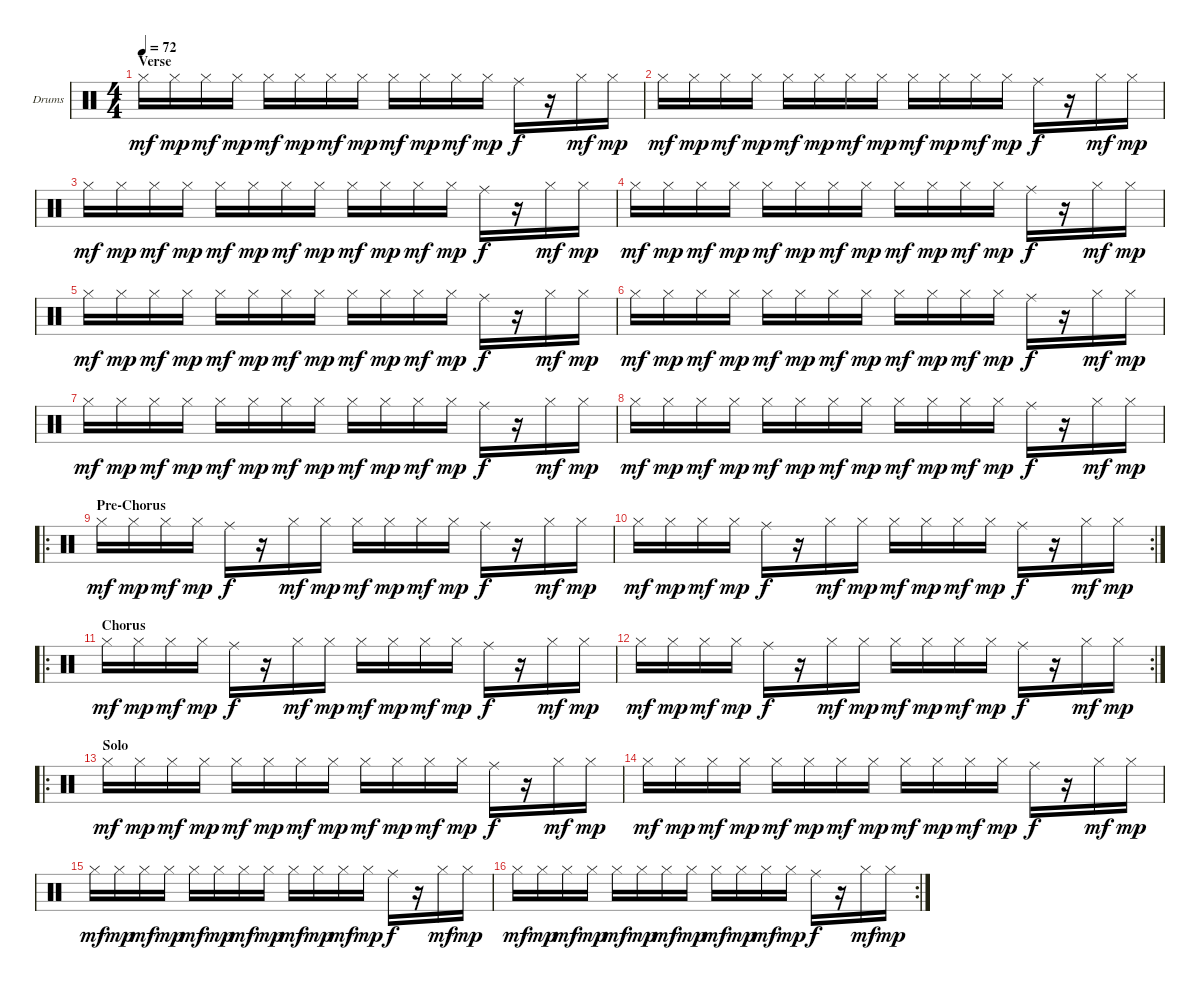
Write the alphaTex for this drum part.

\defaultSystemsLayout 4
\bracketExtendMode groupsimilarinstruments
\firstSystemTrackNameOrientation horizontal
\otherSystemsTrackNameOrientation horizontal
\track ("Drums" "Drums") {instrument percussion}
\staff {score}
\articulation defaults
\ts (4 4)
\section ("" "Verse")
\tempo 72
\clef neutral
\ks c "Hi-Hat (closed)".16{dy mf} "Hi-Hat (closed)".16{dy mp} "Hi-Hat (closed)".16{dy mf} "Hi-Hat (closed)".16{dy mp} "Hi-Hat (closed)".16{dy mf} "Hi-Hat (closed)".16{dy mp} "Hi-Hat (closed)".16{dy mf} "Hi-Hat (closed)".16{dy mp} "Hi-Hat (closed)".16{dy mf} "Hi-Hat (closed)".16{dy mp} "Hi-Hat (closed)".16{dy mf} "Hi-Hat (closed)".16{dy mp} "Ride (middle)".16{dy f}
r.16 "Hi-Hat (closed)".16{dy mf} "Hi-Hat (closed)".16{dy mp} |
"Hi-Hat (closed)".16{dy mf} "Hi-Hat (closed)".16{dy mp} "Hi-Hat (closed)".16{dy mf} "Hi-Hat (closed)".16{dy mp} "Hi-Hat (closed)".16{dy mf} "Hi-Hat (closed)".16{dy mp} "Hi-Hat (closed)".16{dy mf} "Hi-Hat (closed)".16{dy mp} "Hi-Hat (closed)".16{dy mf} "Hi-Hat (closed)".16{dy mp} "Hi-Hat (closed)".16{dy mf} "Hi-Hat (closed)".16{dy mp} "Ride (middle)".16{dy f} r.16 "Hi-Hat (closed)".16{dy mf} "Hi-Hat (closed)".16{dy mp} |
"Hi-Hat (closed)".16{dy mf} "Hi-Hat (closed)".16{dy mp} "Hi-Hat (closed)".16{dy mf} "Hi-Hat (closed)".16{dy mp} "Hi-Hat (closed)".16{dy mf} "Hi-Hat (closed)".16{dy mp} "Hi-Hat (closed)".16{dy mf} "Hi-Hat (closed)".16{dy mp} "Hi-Hat (closed)".16{dy mf} "Hi-Hat (closed)".16{dy mp} "Hi-Hat (closed)".16{dy mf} "Hi-Hat (closed)".16{dy mp} "Ride (middle)".16{dy f} r.16 "Hi-Hat (closed)".16{dy mf} "Hi-Hat (closed)".16{dy mp} |
"Hi-Hat (closed)".16{dy mf} "Hi-Hat (closed)".16{dy mp} "Hi-Hat (closed)".16{dy mf} "Hi-Hat (closed)".16{dy mp} "Hi-Hat (closed)".16{dy mf} "Hi-Hat (closed)".16{dy mp} "Hi-Hat (closed)".16{dy mf} "Hi-Hat (closed)".16{dy mp} "Hi-Hat (closed)".16{dy mf} "Hi-Hat (closed)".16{dy mp} "Hi-Hat (closed)".16{dy mf} "Hi-Hat (closed)".16{dy mp} "Ride (middle)".16{dy f} r.16 "Hi-Hat (closed)".16{dy mf} "Hi-Hat (closed)".16{dy mp} |
"Hi-Hat (closed)".16{dy mf} "Hi-Hat (closed)".16{dy mp} "Hi-Hat (closed)".16{dy mf} "Hi-Hat (closed)".16{dy mp} "Hi-Hat (closed)".16{dy mf} "Hi-Hat (closed)".16{dy mp} "Hi-Hat (closed)".16{dy mf} "Hi-Hat (closed)".16{dy mp} "Hi-Hat (closed)".16{dy mf} "Hi-Hat (closed)".16{dy mp} "Hi-Hat (closed)".16{dy mf} "Hi-Hat (closed)".16{dy mp} "Ride (middle)".16{dy f} r.16 "Hi-Hat (closed)".16{dy mf} "Hi-Hat (closed)".16{dy mp} |
"Hi-Hat (closed)".16{dy mf} "Hi-Hat (closed)".16{dy mp} "Hi-Hat (closed)".16{dy mf} "Hi-Hat (closed)".16{dy mp} "Hi-Hat (closed)".16{dy mf} "Hi-Hat (closed)".16{dy mp} "Hi-Hat (closed)".16{dy mf} "Hi-Hat (closed)".16{dy mp} "Hi-Hat (closed)".16{dy mf} "Hi-Hat (closed)".16{dy mp} "Hi-Hat (closed)".16{dy mf} "Hi-Hat (closed)".16{dy mp} "Ride (middle)".16{dy f} r.16 "Hi-Hat (closed)".16{dy mf} "Hi-Hat (closed)".16{dy mp} |
"Hi-Hat (closed)".16{dy mf} "Hi-Hat (closed)".16{dy mp} "Hi-Hat (closed)".16{dy mf} "Hi-Hat (closed)".16{dy mp} "Hi-Hat (closed)".16{dy mf} "Hi-Hat (closed)".16{dy mp} "Hi-Hat (closed)".16{dy mf} "Hi-Hat (closed)".16{dy mp} "Hi-Hat (closed)".16{dy mf} "Hi-Hat (closed)".16{dy mp} "Hi-Hat (closed)".16{dy mf} "Hi-Hat (closed)".16{dy mp} "Ride (middle)".16{dy f} r.16 "Hi-Hat (closed)".16{dy mf} "Hi-Hat (closed)".16{dy mp} |
"Hi-Hat (closed)".16{dy mf} "Hi-Hat (closed)".16{dy mp} "Hi-Hat (closed)".16{dy mf} "Hi-Hat (closed)".16{dy mp} "Hi-Hat (closed)".16{dy mf} "Hi-Hat (closed)".16{dy mp} "Hi-Hat (closed)".16{dy mf} "Hi-Hat (closed)".16{dy mp} "Hi-Hat (closed)".16{dy mf} "Hi-Hat (closed)".16{dy mp} "Hi-Hat (closed)".16{dy mf} "Hi-Hat (closed)".16{dy mp} "Ride (middle)".16{dy f} r.16 "Hi-Hat (closed)".16{dy mf} "Hi-Hat (closed)".16{dy mp} |
\ro
\section ("" "Pre-Chorus")
"Hi-Hat (closed)".16{dy mf} "Hi-Hat (closed)".16{dy mp} "Hi-Hat (closed)".16{dy mf} "Hi-Hat (closed)".16{dy mp} "Ride (middle)".16{dy f} r.16 "Hi-Hat (closed)".16{dy mf} "Hi-Hat (closed)".16{dy mp} "Hi-Hat (closed)".16{dy mf} "Hi-Hat (closed)".16{dy mp} "Hi-Hat (closed)".16{dy mf} "Hi-Hat (closed)".16{dy mp} "Ride (middle)".16{dy f} r.16 "Hi-Hat (closed)".16{dy mf} "Hi-Hat (closed)".16{dy mp} |
\rc 2 "Hi-Hat (closed)".16{dy mf} "Hi-Hat (closed)".16{dy mp} "Hi-Hat (closed)".16{dy mf} "Hi-Hat (closed)".16{dy mp} "Ride (middle)".16{dy f}
r.16 "Hi-Hat (closed)".16{dy mf} "Hi-Hat (closed)".16{dy mp} "Hi-Hat (closed)".16{dy mf} "Hi-Hat (closed)".16{dy mp} "Hi-Hat (closed)".16{dy mf} "Hi-Hat (closed)".16{dy mp} "Ride (middle)".16{dy f} r.16 "Hi-Hat (closed)".16{dy mf} "Hi-Hat (closed)".16{dy mp} |
\ro
\section ("" "Chorus")
"Hi-Hat (closed)".16{dy mf} "Hi-Hat (closed)".16{dy mp} "Hi-Hat (closed)".16{dy mf} "Hi-Hat (closed)".16{dy mp} "Ride (middle)".16{dy f} r.16 "Hi-Hat (closed)".16{dy mf} "Hi-Hat (closed)".16{dy mp} "Hi-Hat (closed)".16{dy mf} "Hi-Hat (closed)".16{dy mp} "Hi-Hat (closed)".16{dy mf} "Hi-Hat (closed)".16{dy mp} "Ride (middle)".16{dy f} r.16 "Hi-Hat (closed)".16{dy mf} "Hi-Hat (closed)".16{dy mp} |
\rc 2 "Hi-Hat (closed)".16{dy mf} "Hi-Hat (closed)".16{dy mp} "Hi-Hat (closed)".16{dy mf} "Hi-Hat (closed)".16{dy mp} "Ride (middle)".16{dy f}
r.16 "Hi-Hat (closed)".16{dy mf} "Hi-Hat (closed)".16{dy mp} "Hi-Hat (closed)".16{dy mf} "Hi-Hat (closed)".16{dy mp} "Hi-Hat (closed)".16{dy mf} "Hi-Hat (closed)".16{dy mp} "Ride (middle)".16{dy f} r.16 "Hi-Hat (closed)".16{dy mf} "Hi-Hat (closed)".16{dy mp} |
\ro
\section ("" "Solo")
"Hi-Hat (closed)".16{dy mf} "Hi-Hat (closed)".16{dy mp} "Hi-Hat (closed)".16{dy mf} "Hi-Hat (closed)".16{dy mp} "Hi-Hat (closed)".16{dy mf} "Hi-Hat (closed)".16{dy mp} "Hi-Hat (closed)".16{dy mf} "Hi-Hat (closed)".16{dy mp} "Hi-Hat (closed)".16{dy mf} "Hi-Hat (closed)".16{dy mp} "Hi-Hat (closed)".16{dy mf} "Hi-Hat (closed)".16{dy mp} "Ride (middle)".16{dy f} r.16 "Hi-Hat (closed)".16{dy mf} "Hi-Hat (closed)".16{dy mp} |
"Hi-Hat (closed)".16{dy mf} "Hi-Hat (closed)".16{dy mp} "Hi-Hat (closed)".16{dy mf} "Hi-Hat (closed)".16{dy mp} "Hi-Hat (closed)".16{dy mf} "Hi-Hat (closed)".16{dy mp} "Hi-Hat (closed)".16{dy mf} "Hi-Hat (closed)".16{dy mp} "Hi-Hat (closed)".16{dy mf} "Hi-Hat (closed)".16{dy mp} "Hi-Hat (closed)".16{dy mf} "Hi-Hat (closed)".16{dy mp} "Ride (middle)".16{dy f} r.16 "Hi-Hat (closed)".16{dy mf} "Hi-Hat (closed)".16{dy mp} |
"Hi-Hat (closed)".16{dy mf} "Hi-Hat (closed)".16{dy mp} "Hi-Hat (closed)".16{dy mf} "Hi-Hat (closed)".16{dy mp} "Hi-Hat (closed)".16{dy mf} "Hi-Hat (closed)".16{dy mp} "Hi-Hat (closed)".16{dy mf} "Hi-Hat (closed)".16{dy mp} "Hi-Hat (closed)".16{dy mf} "Hi-Hat (closed)".16{dy mp} "Hi-Hat (closed)".16{dy mf} "Hi-Hat (closed)".16{dy mp} "Ride (middle)".16{dy f} r.16 "Hi-Hat (closed)".16{dy mf} "Hi-Hat (closed)".16{dy mp} |
\rc 2 "Hi-Hat (closed)".16{dy mf} "Hi-Hat (closed)".16{dy mp} "Hi-Hat (closed)".16{dy mf} "Hi-Hat (closed)".16{dy mp} "Hi-Hat (closed)".16{dy mf} "Hi-Hat (closed)".16{dy mp} "Hi-Hat (closed)".16{dy mf} "Hi-Hat (closed)".16{dy mp} "Hi-Hat (closed)".16{dy mf} "Hi-Hat (closed)".16{dy mp} "Hi-Hat (closed)".16{dy mf} "Hi-Hat (closed)".16{dy mp} "Ride (middle)".16{dy f}
r.16 "Hi-Hat (closed)".16{dy mf} "Hi-Hat (closed)".16{dy mp}
